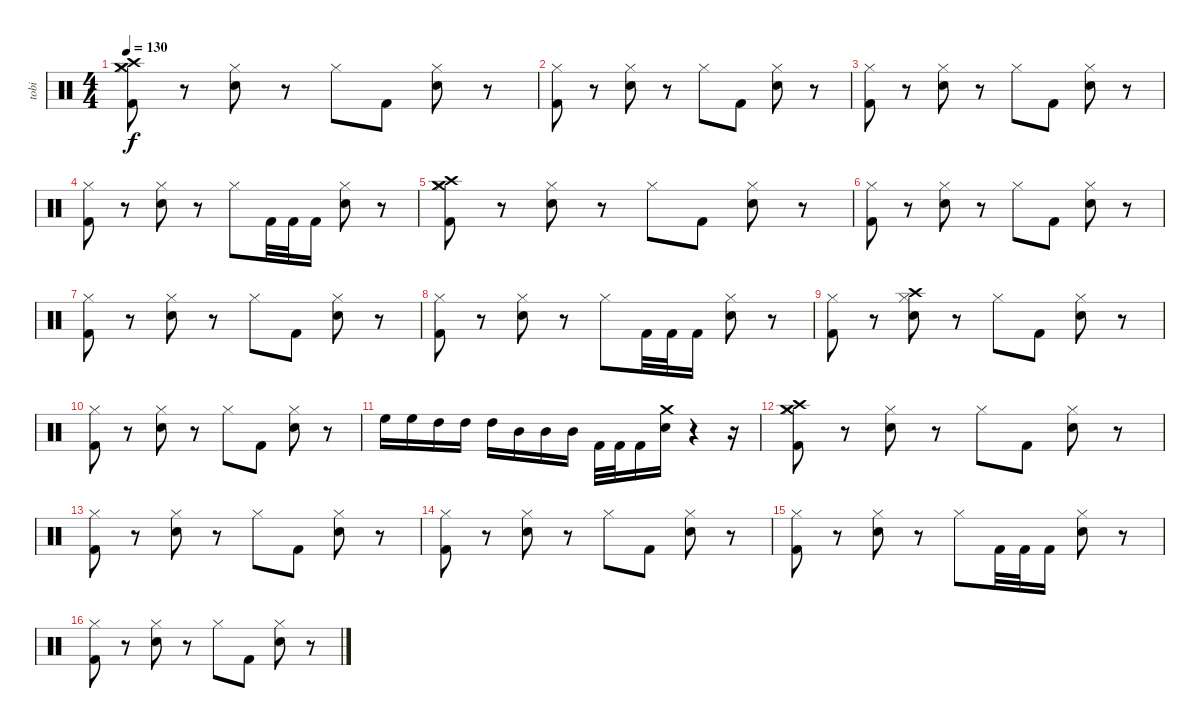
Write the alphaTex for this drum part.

\track ("tobi" "tobi") {instrument percussion}
\staff {score}
\articulation defaults
\ts (4 4)
\tempo 130
\clef neutral
\ks c
("Crash medium (hit)" "Hi-Hat (closed)" "Crash high (hit)" "Kick (hit) 2").8{dy f} r.8 ("Hi-Hat (closed)" "Snare (hit) 2").8 r.8 "Hi-Hat (closed)".8 "Kick (hit) 2".8 ("Hi-Hat (closed)" "Snare (hit) 2").8 r.8 |
("Hi-Hat (closed)" "Kick (hit) 2").8 r.8 ("Hi-Hat (closed)" "Snare (hit) 2").8 r.8 "Hi-Hat (closed)".8 "Kick (hit) 2".8 ("Hi-Hat (closed)" "Snare (hit) 2").8 r.8 |
("Hi-Hat (closed)" "Kick (hit) 2").8 r.8 ("Hi-Hat (closed)" "Snare (hit) 2").8 r.8 "Hi-Hat (closed)".8 "Kick (hit) 2".8 ("Hi-Hat (closed)" "Snare (hit) 2").8 r.8 |
("Hi-Hat (closed)" "Kick (hit) 2").8 r.8 ("Hi-Hat (closed)" "Snare (hit) 2").8 r.8 "Hi-Hat (closed)".8 "Kick (hit) 2".32 "Kick (hit) 2".32 "Kick (hit) 2".16 ("Hi-Hat (closed)" "Snare (hit) 2").8 r.8 |
("Crash medium (hit)" "Hi-Hat (closed)" "Crash high (hit)" "Kick (hit) 2").8 r.8 ("Hi-Hat (closed)" "Snare (hit) 2").8 r.8 "Hi-Hat (closed)".8 "Kick (hit) 2".8 ("Hi-Hat (closed)" "Snare (hit) 2").8 r.8 |
("Hi-Hat (closed)" "Kick (hit) 2").8 r.8 ("Hi-Hat (closed)" "Snare (hit) 2").8 r.8 "Hi-Hat (closed)".8 "Kick (hit) 2".8 ("Hi-Hat (closed)" "Snare (hit) 2").8 r.8 |
("Hi-Hat (closed)" "Kick (hit) 2").8 r.8 ("Hi-Hat (closed)" "Snare (hit) 2").8 r.8 "Hi-Hat (closed)".8 "Kick (hit) 2".8 ("Hi-Hat (closed)" "Snare (hit) 2").8 r.8 |
("Hi-Hat (closed)" "Kick (hit) 2").8 r.8 ("Hi-Hat (closed)" "Snare (hit) 2").8 r.8 "Hi-Hat (closed)".8 "Kick (hit) 2".32 "Kick (hit) 2".32 "Kick (hit) 2".16 ("Hi-Hat (closed)" "Snare (hit) 2").8 r.8 |
("Hi-Hat (closed)" "Kick (hit) 2").8 r.8 ("Crash high (hit)" "Hi-Hat (closed)" "Snare (hit) 2").8 r.8 "Hi-Hat (closed)".8 "Kick (hit) 2".8 ("Hi-Hat (closed)" "Snare (hit) 2").8 r.8 |
("Hi-Hat (closed)" "Kick (hit) 2").8 r.8 ("Hi-Hat (closed)" "Snare (hit) 2").8 r.8 "Hi-Hat (closed)".8 "Kick (hit) 2".8 ("Hi-Hat (closed)" "Snare (hit) 2").8 r.8 |
"High Floor Tom (hit)".16 "High Floor Tom (hit)".16 "High Tom (hit)".16 "High Tom (hit)".16 "High Tom (hit)".16 "Mid Tom (hit)".16 "Mid Tom (hit)".16 "Mid Tom (hit)".16 "Kick (hit) 2".32 "Kick (hit) 2".32 "Kick (hit) 2".16 ("Crash medium (hit)" "Snare (hit) 2").16 r.4 r.16 |
("Crash medium (hit)" "Hi-Hat (closed)" "Crash high (hit)" "Kick (hit) 2").8 r.8 ("Hi-Hat (closed)" "Snare (hit) 2").8 r.8 "Hi-Hat (closed)".8 "Kick (hit) 2".8 ("Hi-Hat (closed)" "Snare (hit) 2").8 r.8 |
("Hi-Hat (closed)" "Kick (hit) 2").8 r.8 ("Hi-Hat (closed)" "Snare (hit) 2").8 r.8 "Hi-Hat (closed)".8 "Kick (hit) 2".8 ("Hi-Hat (closed)" "Snare (hit) 2").8 r.8 |
("Hi-Hat (closed)" "Kick (hit) 2").8 r.8 ("Hi-Hat (closed)" "Snare (hit) 2").8 r.8 "Hi-Hat (closed)".8 "Kick (hit) 2".8 ("Hi-Hat (closed)" "Snare (hit) 2").8 r.8 |
("Hi-Hat (closed)" "Kick (hit) 2").8 r.8 ("Hi-Hat (closed)" "Snare (hit) 2").8 r.8 "Hi-Hat (closed)".8 "Kick (hit) 2".32 "Kick (hit) 2".32 "Kick (hit) 2".16 ("Hi-Hat (closed)" "Snare (hit) 2").8 r.8 |
("Hi-Hat (closed)" "Kick (hit) 2").8 r.8 ("Hi-Hat (closed)" "Snare (hit) 2").8 r.8 "Hi-Hat (closed)".8 "Kick (hit) 2".8 ("Hi-Hat (closed)" "Snare (hit) 2").8 r.8
